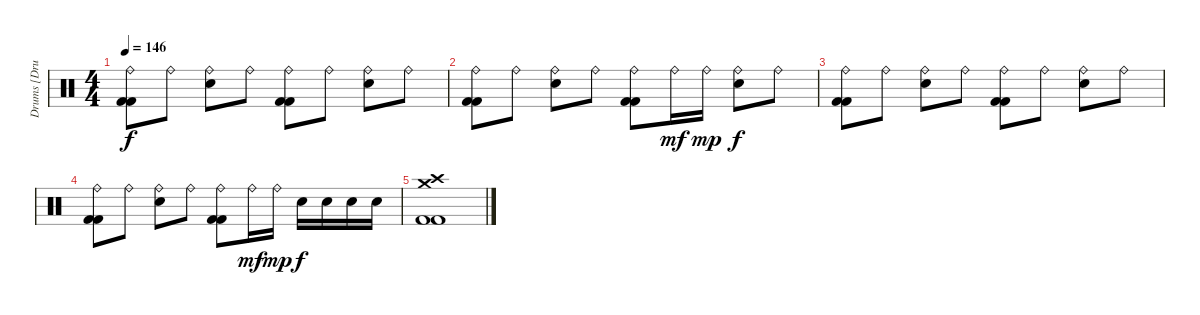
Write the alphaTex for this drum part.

\track ("Drums [Drums]" "Drums [Dru") {instrument percussion}
\staff {score}
\articulation defaults
\ts (4 4)
\tempo 146
\clef neutral
\ks c
("Ride (bell)" "Kick (hit) 2" "Kick (hit) 2").8{dy f} "Ride (bell)".8 ("Ride (bell)" "Snare (hit) 2").8 "Ride (bell)".8 ("Ride (bell)" "Kick (hit) 2" "Kick (hit) 2").8 "Ride (bell)".8 ("Ride (bell)" "Snare (hit) 2").8 "Ride (bell)".8 |
("Ride (bell)" "Kick (hit) 2" "Kick (hit) 2").8 "Ride (bell)".8 ("Ride (bell)" "Snare (hit) 2").8 "Ride (bell)".8 ("Ride (bell)" "Kick (hit) 2" "Kick (hit) 2").8 "Ride (bell)".16{dy mf} "Ride (bell)".16{dy mp} ("Ride (bell)" "Snare (hit) 2").8{dy f} "Ride (bell)".8 |
("Ride (bell)" "Kick (hit) 2" "Kick (hit) 2").8 "Ride (bell)".8 ("Ride (bell)" "Snare (hit) 2").8 "Ride (bell)".8 ("Ride (bell)" "Kick (hit) 2" "Kick (hit) 2").8 "Ride (bell)".8 ("Ride (bell)" "Snare (hit) 2").8 "Ride (bell)".8 |
("Ride (bell)" "Kick (hit) 2" "Kick (hit) 2").8 "Ride (bell)".8 ("Ride (bell)" "Snare (hit) 2").8 "Ride (bell)".8 ("Ride (bell)" "Kick (hit) 2" "Kick (hit) 2").8 "Ride (bell)".16{dy mf} "Ride (bell)".16{dy mp} "Snare (hit) 2".16{dy f} "Snare (hit) 2".16 "Snare (hit) 2".16 "Snare (hit) 2".16 |
("Crash high (hit)" "Crash medium (hit)" "Kick (hit) 2" "Kick (hit) 2").1
